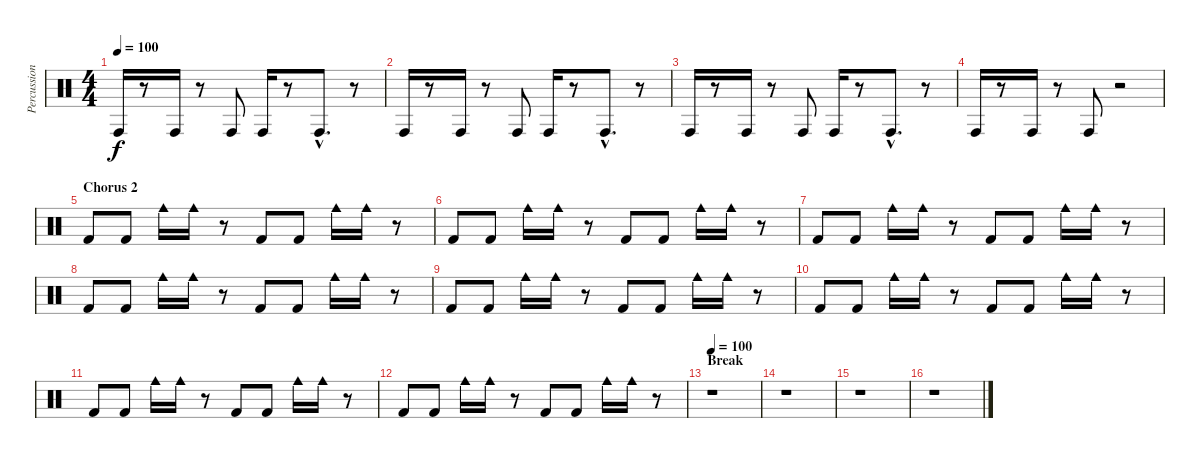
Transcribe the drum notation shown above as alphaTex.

\track ("Percussions additionnelles" "Percussion") {instrument percussion}
\staff {score}
\articulation defaults
\ts (4 4)
\tempo 100
\clef neutral
\ks c "Conga high (hit)".16{dy f}
r.8 "Conga high (hit)".16 r.8 "Conga high (hit)".8 "Conga high (hit)".16 r.8 "Conga high (hit)"{hac}.8{d} r.8 |
"Conga high (hit)".16 r.8 "Conga high (hit)".16 r.8 "Conga high (hit)".8 "Conga high (hit)".16 r.8 "Conga high (hit)"{hac}.8{d} r.8 |
"Conga high (hit)".16 r.8 "Conga high (hit)".16 r.8 "Conga high (hit)".8 "Conga high (hit)".16 r.8 "Conga high (hit)"{hac}.8{d} r.8 |
"Conga high (hit)".16 r.8 "Conga high (hit)".16 r.8 "Conga high (hit)".8 r.2 |
\section ("" "Chorus 2")
"Kick (hit) 2".8 "Kick (hit) 2".8 "Cowbell medium (hit)".16 "Cowbell medium (hit)".16 r.8 "Kick (hit) 2".8 "Kick (hit) 2".8 "Cowbell medium (hit)".16 "Cowbell medium (hit)".16 r.8 |
"Kick (hit) 2".8 "Kick (hit) 2".8 "Cowbell medium (hit)".16 "Cowbell medium (hit)".16 r.8 "Kick (hit) 2".8 "Kick (hit) 2".8 "Cowbell medium (hit)".16 "Cowbell medium (hit)".16 r.8 |
"Kick (hit) 2".8 "Kick (hit) 2".8 "Cowbell medium (hit)".16 "Cowbell medium (hit)".16 r.8 "Kick (hit) 2".8 "Kick (hit) 2".8 "Cowbell medium (hit)".16 "Cowbell medium (hit)".16 r.8 |
"Kick (hit) 2".8 "Kick (hit) 2".8 "Cowbell medium (hit)".16 "Cowbell medium (hit)".16 r.8 "Kick (hit) 2".8 "Kick (hit) 2".8 "Cowbell medium (hit)".16 "Cowbell medium (hit)".16 r.8 |
"Kick (hit) 2".8 "Kick (hit) 2".8 "Cowbell medium (hit)".16 "Cowbell medium (hit)".16 r.8 "Kick (hit) 2".8 "Kick (hit) 2".8 "Cowbell medium (hit)".16 "Cowbell medium (hit)".16 r.8 |
"Kick (hit) 2".8 "Kick (hit) 2".8 "Cowbell medium (hit)".16 "Cowbell medium (hit)".16 r.8 "Kick (hit) 2".8 "Kick (hit) 2".8 "Cowbell medium (hit)".16 "Cowbell medium (hit)".16 r.8 |
"Kick (hit) 2".8 "Kick (hit) 2".8 "Cowbell medium (hit)".16 "Cowbell medium (hit)".16 r.8 "Kick (hit) 2".8 "Kick (hit) 2".8 "Cowbell medium (hit)".16 "Cowbell medium (hit)".16 r.8 |
"Kick (hit) 2".8 "Kick (hit) 2".8 "Cowbell medium (hit)".16 "Cowbell medium (hit)".16 r.8 "Kick (hit) 2".8 "Kick (hit) 2".8 "Cowbell medium (hit)".16 "Cowbell medium (hit)".16 r.8 |
\section ("" "Break")
\tempo 100
r.1 |
r.1 |
r.1 |
r.1
